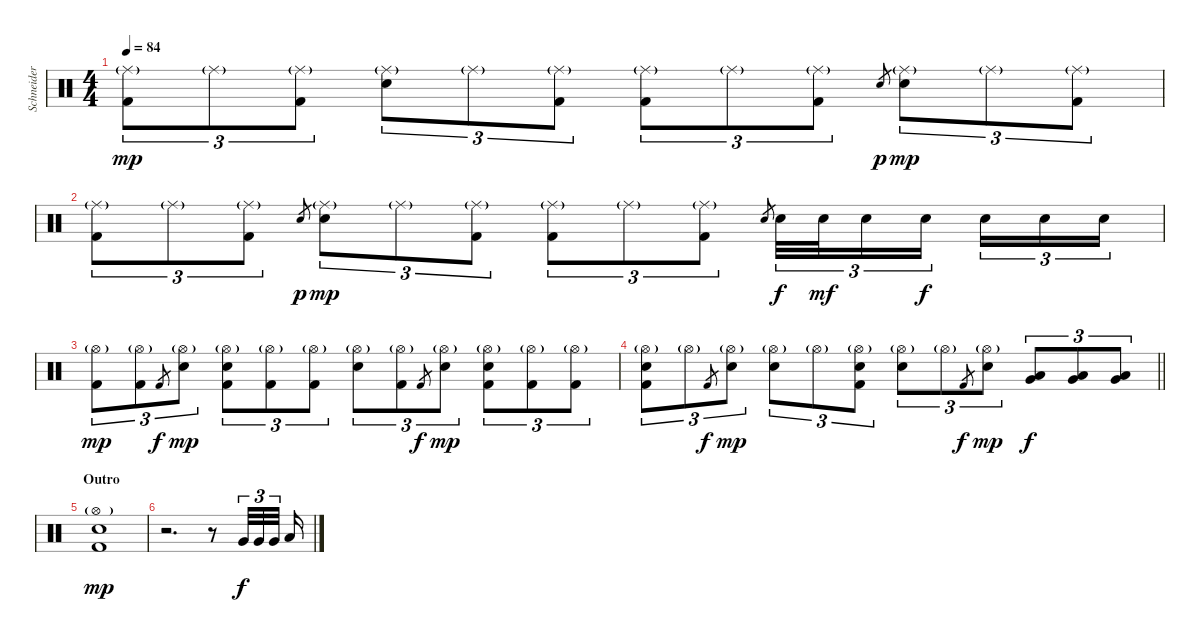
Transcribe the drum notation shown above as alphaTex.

\track ("Schneider" "Schneider") {instrument percussion}
\staff {score}
\articulation defaults
\ts (4 4)
\tempo 84
\clef neutral
\ks c
("Ride (middle)"{g} "Kick (hit) 2").8{tu (3 2) dy mp} "Ride (middle)"{g}.8{tu (3 2)} ("Ride (middle)"{g} "Kick (hit) 2").8{tu (3 2)} ("Ride (middle)"{g} "Electric Snare (hit)").8{tu (3 2)} "Ride (middle)"{g}.8{tu (3 2)} ("Ride (middle)"{g} "Kick (hit) 2").8{tu (3 2)} ("Ride (middle)"{g} "Kick (hit) 2").8{tu (3 2)} "Ride (middle)"{g}.8{tu (3 2)} ("Ride (middle)"{g} "Kick (hit) 2").8{tu (3 2)} "Electric Snare (hit)"{h}.8{gr dy p} ("Ride (middle)"{g} "Electric Snare (hit)").8{tu (3 2) dy mp} "Ride (middle)"{g}.8{tu (3 2)} ("Ride (middle)"{g} "Kick (hit) 2").8{tu (3 2)} |
("Ride (middle)"{g} "Kick (hit) 2").8{tu (3 2)} "Ride (middle)"{g}.8{tu (3 2)} ("Ride (middle)"{g} "Kick (hit) 2").8{tu (3 2)} "Electric Snare (hit)"{h}.8{gr dy p} ("Ride (middle)"{g} "Electric Snare (hit)").8{tu (3 2) dy mp} "Ride (middle)"{g}.8{tu (3 2)} ("Ride (middle)"{g} "Kick (hit) 2").8{tu (3 2)} ("Ride (middle)"{g} "Kick (hit) 2").8{tu (3 2)} "Ride (middle)"{g}.8{tu (3 2)} ("Ride (middle)"{g} "Kick (hit) 2").8{tu (3 2)} "Electric Snare (hit)"{h}.8{gr} "Electric Snare (hit)".32{tu (3 2) dy f} "Electric Snare (hit)".32{tu (3 2) dy mf} "Electric Snare (hit)".16{tu (3 2)} "Electric Snare (hit)".16{tu (3 2) dy f beam splitsecondary} "Electric Snare (hit)".16{tu (3 2)} "Electric Snare (hit)".16{tu (3 2)} "Electric Snare (hit)".16{tu (3 2)} |
("Hi-Hat (open)"{g} "Kick (hit) 2").8{tu (3 2) dy mp} ("Hi-Hat (open)"{g} "Kick (hit) 2").8{tu (3 2)} "Kick (hit) 2".8{gr dy f} ("Hi-Hat (open)"{g} "Electric Snare (hit)").8{tu (3 2) dy mp} ("Hi-Hat (open)"{g} "Kick (hit) 2" "Electric Snare (hit)").8{tu (3 2)} ("Hi-Hat (open)"{g} "Kick (hit) 2").8{tu (3 2)} ("Hi-Hat (open)"{g} "Kick (hit) 2").8{tu (3 2)} ("Hi-Hat (open)"{g} "Electric Snare (hit)").8{tu (3 2)} ("Hi-Hat (open)"{g} "Kick (hit) 2").8{tu (3 2)} "Kick (hit) 2".8{gr dy f} ("Hi-Hat (open)"{g} "Electric Snare (hit)").8{tu (3 2) dy mp} ("Hi-Hat (open)"{g} "Kick (hit) 2" "Electric Snare (hit)").8{tu (3 2)} ("Hi-Hat (open)"{g} "Kick (hit) 2").8{tu (3 2)} ("Hi-Hat (open)"{g} "Kick (hit) 2").8{tu (3 2)} |
\barLineRight lightlight
("Hi-Hat (open)"{g} "Kick (hit) 2" "Electric Snare (hit)").8{tu (3 2)} "Hi-Hat (open)"{g}.8{tu (3 2)} "Kick (hit) 2".8{gr dy f} ("Hi-Hat (open)"{g} "Electric Snare (hit)").8{tu (3 2) dy mp} ("Hi-Hat (open)"{g} "Electric Snare (hit)").8{tu (3 2)} "Hi-Hat (open)"{g}.8{tu (3 2)} ("Hi-Hat (open)"{g} "Kick (hit) 2" "Electric Snare (hit)").8{tu (3 2)} ("Hi-Hat (open)"{g} "Electric Snare (hit)").8{tu (3 2)} "Hi-Hat (open)"{g}.8{tu (3 2)} "Kick (hit) 2".8{gr dy f} ("Hi-Hat (open)"{g} "Electric Snare (hit)").8{tu (3 2) dy mp} ("Very Low Tom (hit)" "Low Tom (hit)").8{tu (3 2) dy f} ("Very Low Tom (hit)" "Low Tom (hit)").8{tu (3 2)} ("Very Low Tom (hit)" "Low Tom (hit)").8{tu (3 2)} |
\section ("" "Outro")
("Hi-Hat (open)"{g} "Kick (hit) 2" "Electric Snare (hit)").1{dy mp} |
r.2{d} r.8 "Very Low Tom (hit)".32{tu (3 2) dy f} "Very Low Tom (hit)".32{tu (3 2)} "Very Low Tom (hit)".32{tu (3 2) beam splitsecondary} "Low Tom (hit)".16
